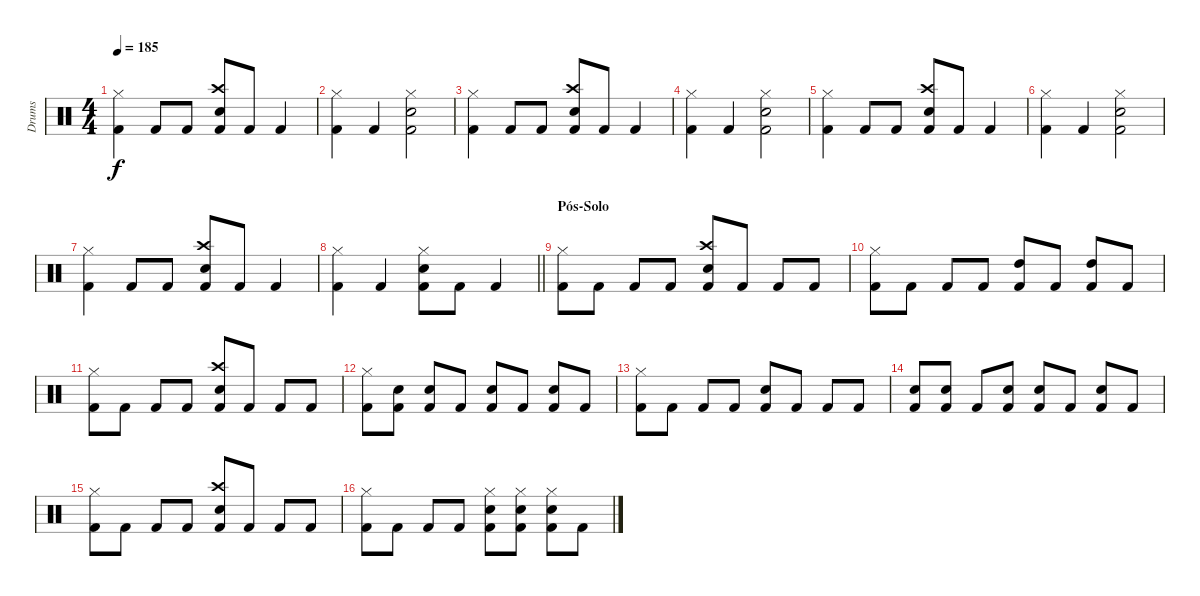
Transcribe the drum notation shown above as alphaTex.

\track ("Drums" "Drums") {instrument percussion}
\staff {score}
\articulation defaults
\ts (4 4)
\tempo 185
\clef neutral
\ks c
("Hi-Hat (closed)" "Kick (hit) 2").4{dy f} "Kick (hit) 2".8 "Kick (hit) 2".8 ("Crash high (hit)" "Electric Snare (hit)" "Kick (hit) 2").8 "Kick (hit) 2".8 "Kick (hit) 2".4 |
("Hi-Hat (closed)" "Kick (hit) 2").4 "Kick (hit) 2".4 ("Hi-Hat (closed)" "Electric Snare (hit)" "Kick (hit) 2").2 |
("Hi-Hat (closed)" "Kick (hit) 2").4 "Kick (hit) 2".8 "Kick (hit) 2".8 ("Crash high (hit)" "Electric Snare (hit)" "Kick (hit) 2").8 "Kick (hit) 2".8 "Kick (hit) 2".4 |
("Hi-Hat (closed)" "Kick (hit) 2").4 "Kick (hit) 2".4 ("Hi-Hat (closed)" "Electric Snare (hit)" "Kick (hit) 2").2 |
("Hi-Hat (closed)" "Kick (hit) 2").4 "Kick (hit) 2".8 "Kick (hit) 2".8 ("Crash high (hit)" "Electric Snare (hit)" "Kick (hit) 2").8 "Kick (hit) 2".8 "Kick (hit) 2".4 |
("Hi-Hat (closed)" "Kick (hit) 2").4 "Kick (hit) 2".4 ("Hi-Hat (closed)" "Electric Snare (hit)" "Kick (hit) 2").2 |
("Hi-Hat (closed)" "Kick (hit) 2").4 "Kick (hit) 2".8 "Kick (hit) 2".8 ("Crash high (hit)" "Electric Snare (hit)" "Kick (hit) 2").8 "Kick (hit) 2".8 "Kick (hit) 2".4 |
\barLineRight lightlight
("Hi-Hat (closed)" "Kick (hit) 2").4 "Kick (hit) 2".4 ("Hi-Hat (closed)" "Electric Snare (hit)" "Kick (hit) 2").8 "Kick (hit) 2".8 "Kick (hit) 2".4 |
\section ("" "Pós-Solo")
("Hi-Hat (closed)" "Kick (hit) 2").8 "Kick (hit) 2".8 "Kick (hit) 2".8 "Kick (hit) 2".8 ("Crash high (hit)" "Electric Snare (hit)" "Kick (hit) 2").8 "Kick (hit) 2".8 "Kick (hit) 2".8 "Kick (hit) 2".8 |
("Hi-Hat (closed)" "Kick (hit) 2").8 "Kick (hit) 2".8 "Kick (hit) 2".8 "Kick (hit) 2".8 ("High Tom (hit)" "Kick (hit) 2").8 "Kick (hit) 2".8 ("High Tom (hit)" "Kick (hit) 2").8 "Kick (hit) 2".8 |
("Hi-Hat (closed)" "Kick (hit) 2").8 "Kick (hit) 2".8 "Kick (hit) 2".8 "Kick (hit) 2".8 ("Crash high (hit)" "Electric Snare (hit)" "Kick (hit) 2").8 "Kick (hit) 2".8 "Kick (hit) 2".8 "Kick (hit) 2".8 |
("Hi-Hat (closed)" "Kick (hit) 2").8 ("Electric Snare (hit)" "Kick (hit) 2").8 ("Electric Snare (hit)" "Kick (hit) 2").8 "Kick (hit) 2".8 ("Electric Snare (hit)" "Kick (hit) 2").8 "Kick (hit) 2".8 ("Electric Snare (hit)" "Kick (hit) 2").8 "Kick (hit) 2".8 |
("Hi-Hat (closed)" "Kick (hit) 2").8 "Kick (hit) 2".8 "Kick (hit) 2".8 "Kick (hit) 2".8 ("Electric Snare (hit)" "Kick (hit) 2").8 "Kick (hit) 2".8 "Kick (hit) 2".8 "Kick (hit) 2".8 |
("Electric Snare (hit)" "Kick (hit) 2").8 ("Electric Snare (hit)" "Kick (hit) 2").8 "Kick (hit) 2".8 ("Electric Snare (hit)" "Kick (hit) 2").8 ("Electric Snare (hit)" "Kick (hit) 2").8 "Kick (hit) 2".8 ("Electric Snare (hit)" "Kick (hit) 2").8 "Kick (hit) 2".8 |
("Hi-Hat (closed)" "Kick (hit) 2").8 "Kick (hit) 2".8 "Kick (hit) 2".8 "Kick (hit) 2".8 ("Crash high (hit)" "Electric Snare (hit)" "Kick (hit) 2").8 "Kick (hit) 2".8 "Kick (hit) 2".8 "Kick (hit) 2".8 |
("Hi-Hat (closed)" "Kick (hit) 2").8 "Kick (hit) 2".8 "Kick (hit) 2".8 "Kick (hit) 2".8 ("Hi-Hat (closed)" "Electric Snare (hit)" "Kick (hit) 2").8 ("Hi-Hat (closed)" "Electric Snare (hit)" "Kick (hit) 2").8 ("Hi-Hat (closed)" "Electric Snare (hit)" "Kick (hit) 2").8 "Kick (hit) 2".8
